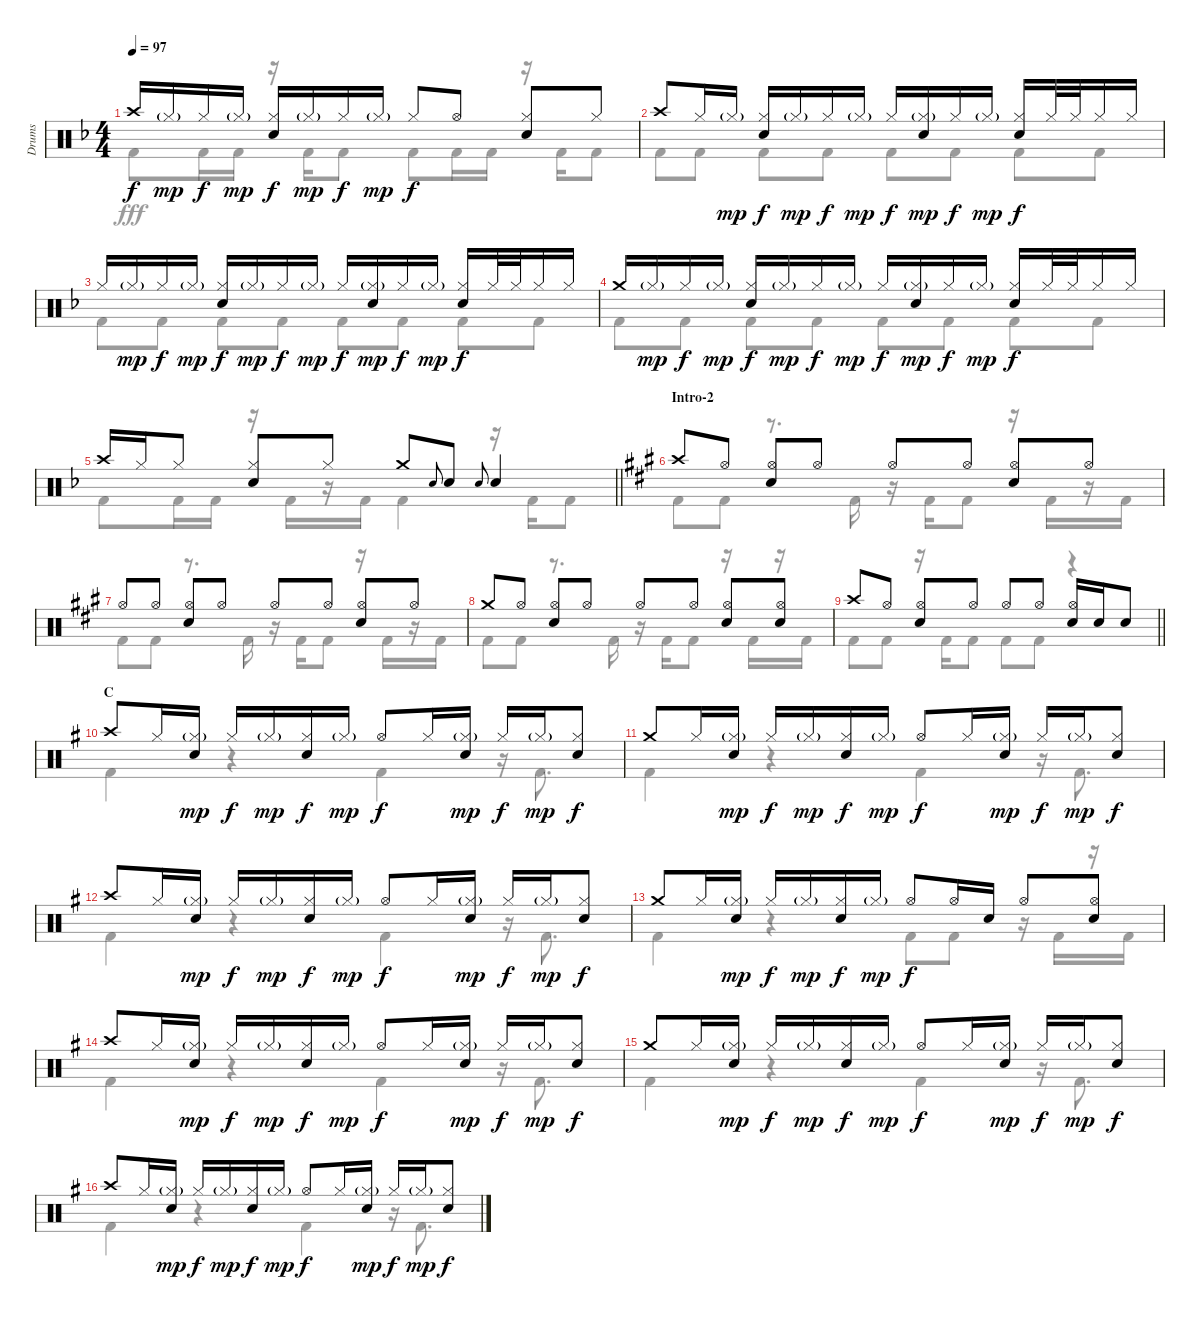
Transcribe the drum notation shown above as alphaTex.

\track ("Drums" "Drums") {instrument percussion}
\staff {score}
\articulation defaults
\voice
\ts (4 4)
\tempo 97
\clef neutral
\ks f "Crash high (hit)".16{dy f} "Hi-Hat (closed)"{g}.16{dy mp} "Hi-Hat (closed)".16{dy f} "Hi-Hat (closed)"{g}.16{dy mp}
("Hi-Hat (closed)" "Snare (hit) 2").16{dy f} "Hi-Hat (closed)"{g}.16{dy mp} "Hi-Hat (closed)".16{dy f} "Hi-Hat (closed)"{g}.16{dy mp} "Hi-Hat (closed)".8{dy f} "Hi-Hat (open)".8 ("Hi-Hat (closed)" "Snare (hit) 2").8 "Hi-Hat (closed)".8 |
"Crash high (hit)".8 "Hi-Hat (closed)".16 "Hi-Hat (closed)"{g}.16{dy mp} ("Hi-Hat (closed)" "Snare (hit) 2").16{dy f} "Hi-Hat (closed)"{g}.16{dy mp} "Hi-Hat (closed)".16{dy f} "Hi-Hat (closed)"{g}.16{dy mp} "Hi-Hat (closed)".16{dy f} ("Hi-Hat (closed)"{g} "Snare (hit) 2").16{dy mp} "Hi-Hat (closed)".16{dy f} "Hi-Hat (closed)"{g}.16{dy mp} ("Hi-Hat (closed)" "Snare (hit) 2").16{dy f} "Hi-Hat (closed)".32 "Hi-Hat (closed)".32 "Hi-Hat (closed)".16 "Hi-Hat (closed)".16 |
"Hi-Hat (closed)".16 "Hi-Hat (closed)"{g}.16{dy mp} "Hi-Hat (closed)".16{dy f} "Hi-Hat (closed)"{g}.16{dy mp} ("Hi-Hat (closed)" "Snare (hit) 2").16{dy f} "Hi-Hat (closed)"{g}.16{dy mp} "Hi-Hat (closed)".16{dy f} "Hi-Hat (closed)"{g}.16{dy mp} "Hi-Hat (closed)".16{dy f} ("Hi-Hat (closed)"{g} "Snare (hit) 2").16{dy mp} "Hi-Hat (closed)".16{dy f} "Hi-Hat (closed)"{g}.16{dy mp} ("Hi-Hat (closed)" "Snare (hit) 2").16{dy f} "Hi-Hat (closed)".32 "Hi-Hat (closed)".32 "Hi-Hat (closed)".16 "Hi-Hat (closed)".16 |
"Crash medium (hit)".16 "Hi-Hat (closed)"{g}.16{dy mp} "Hi-Hat (closed)".16{dy f} "Hi-Hat (closed)"{g}.16{dy mp} ("Hi-Hat (closed)" "Snare (hit) 2").16{dy f} "Hi-Hat (closed)"{g}.16{dy mp} "Hi-Hat (closed)".16{dy f} "Hi-Hat (closed)"{g}.16{dy mp} "Hi-Hat (closed)".16{dy f} ("Hi-Hat (closed)"{g} "Snare (hit) 2").16{dy mp} "Hi-Hat (closed)".16{dy f} "Hi-Hat (closed)"{g}.16{dy mp} ("Hi-Hat (closed)" "Snare (hit) 2").16{dy f} "Hi-Hat (closed)".32 "Hi-Hat (closed)".32 "Hi-Hat (closed)".16 "Hi-Hat (closed)".16 |
\barLineRight lightlight "Crash high (hit)".16 "Hi-Hat (closed)".16 "Hi-Hat (closed)".8
("Hi-Hat (closed)" "Snare (hit) 2").8 "Hi-Hat (closed)".8 "Crash medium (hit)".8 "Snare (hit) 2".8{gr onbeat} "Snare (hit) 2".8 "Snare (hit) 2".8{gr onbeat} "Snare (hit) 2".4 |
\section ("" "Intro-2")
\ks a "Crash high (hit)".8 "Hi-Hat (open)".8
("Hi-Hat (open)" "Snare (hit) 2").8 "Hi-Hat (open)".8 "Hi-Hat (open)".8 "Hi-Hat (open)".8 ("Hi-Hat (open)" "Snare (hit) 2").8 "Hi-Hat (open)".8 |
"Hi-Hat (open)".8 "Hi-Hat (open)".8 ("Hi-Hat (open)" "Snare (hit) 2").8 "Hi-Hat (open)".8 "Hi-Hat (open)".8 "Hi-Hat (open)".8 ("Hi-Hat (open)" "Snare (hit) 2").8 "Hi-Hat (open)".8 |
"Crash medium (hit)".8 "Hi-Hat (open)".8 ("Hi-Hat (open)" "Snare (hit) 2").8 "Hi-Hat (open)".8 "Hi-Hat (open)".8 "Hi-Hat (open)".8 ("Hi-Hat (open)" "Snare (hit) 2").8 ("Hi-Hat (open)" "Snare (hit) 2").8 |
\barLineRight lightlight "Crash high (hit)".8 "Hi-Hat (open)".8
("Hi-Hat (open)" "Snare (hit) 2").8 "Hi-Hat (open)".8 "Hi-Hat (open)".8 "Hi-Hat (open)".8 ("Hi-Hat (open)" "Snare (hit) 2").16 "Snare (hit) 2".16 "Snare (hit) 2".8 |
\section ("" "C")
\ks eminor "Crash high (hit)".8 "Hi-Hat (closed)".16
("Hi-Hat (closed)"{g} "Snare (hit) 2").16{dy mp} "Hi-Hat (closed)".16{dy f} "Hi-Hat (closed)"{g}.16{dy mp} ("Hi-Hat (closed)" "Snare (hit) 2").16{dy f} "Hi-Hat (closed)"{g}.16{dy mp} "Hi-Hat (open)".8{dy f} "Hi-Hat (closed)".16 ("Hi-Hat (closed)"{g} "Snare (hit) 2").16{dy mp} "Hi-Hat (closed)".16{dy f} "Hi-Hat (closed)"{g}.16{dy mp} ("Hi-Hat (closed)" "Snare (hit) 2").8{dy f} |
"Crash medium (hit)".8 "Hi-Hat (closed)".16 ("Hi-Hat (closed)"{g} "Snare (hit) 2").16{dy mp} "Hi-Hat (closed)".16{dy f} "Hi-Hat (closed)"{g}.16{dy mp} ("Hi-Hat (closed)" "Snare (hit) 2").16{dy f} "Hi-Hat (closed)"{g}.16{dy mp} "Hi-Hat (open)".8{dy f} "Hi-Hat (closed)".16 ("Hi-Hat (closed)"{g} "Snare (hit) 2").16{dy mp} "Hi-Hat (closed)".16{dy f} "Hi-Hat (closed)"{g}.16{dy mp} ("Hi-Hat (closed)" "Snare (hit) 2").8{dy f} |
"Crash high (hit)".8 "Hi-Hat (closed)".16 ("Hi-Hat (closed)"{g} "Snare (hit) 2").16{dy mp} "Hi-Hat (closed)".16{dy f} "Hi-Hat (closed)"{g}.16{dy mp} ("Hi-Hat (closed)" "Snare (hit) 2").16{dy f} "Hi-Hat (closed)"{g}.16{dy mp} "Hi-Hat (open)".8{dy f} "Hi-Hat (closed)".16 ("Hi-Hat (closed)"{g} "Snare (hit) 2").16{dy mp} "Hi-Hat (closed)".16{dy f} "Hi-Hat (closed)"{g}.16{dy mp} ("Hi-Hat (closed)" "Snare (hit) 2").8{dy f} |
"Crash medium (hit)".8 "Hi-Hat (closed)".16 ("Hi-Hat (closed)"{g} "Snare (hit) 2").16{dy mp} "Hi-Hat (closed)".16{dy f} "Hi-Hat (closed)"{g}.16{dy mp} ("Hi-Hat (closed)" "Snare (hit) 2").16{dy f} "Hi-Hat (closed)"{g}.16{dy mp} "Hi-Hat (open)".8{dy f} "Hi-Hat (open)".16 "Snare (hit) 2".16 "Hi-Hat (open)".8 ("Hi-Hat (open)" "Snare (hit) 2").8 |
"Crash high (hit)".8 "Hi-Hat (closed)".16 ("Hi-Hat (closed)"{g} "Snare (hit) 2").16{dy mp} "Hi-Hat (closed)".16{dy f} "Hi-Hat (closed)"{g}.16{dy mp} ("Hi-Hat (closed)" "Snare (hit) 2").16{dy f} "Hi-Hat (closed)"{g}.16{dy mp} "Hi-Hat (open)".8{dy f} "Hi-Hat (closed)".16 ("Hi-Hat (closed)"{g} "Snare (hit) 2").16{dy mp} "Hi-Hat (closed)".16{dy f} "Hi-Hat (closed)"{g}.16{dy mp} ("Hi-Hat (closed)" "Snare (hit) 2").8{dy f} |
"Crash medium (hit)".8 "Hi-Hat (closed)".16 ("Hi-Hat (closed)"{g} "Snare (hit) 2").16{dy mp} "Hi-Hat (closed)".16{dy f} "Hi-Hat (closed)"{g}.16{dy mp} ("Hi-Hat (closed)" "Snare (hit) 2").16{dy f} "Hi-Hat (closed)"{g}.16{dy mp} "Hi-Hat (open)".8{dy f} "Hi-Hat (closed)".16 ("Hi-Hat (closed)"{g} "Snare (hit) 2").16{dy mp} "Hi-Hat (closed)".16{dy f} "Hi-Hat (closed)"{g}.16{dy mp} ("Hi-Hat (closed)" "Snare (hit) 2").8{dy f} |
"Crash high (hit)".8 "Hi-Hat (closed)".16 ("Hi-Hat (closed)"{g} "Snare (hit) 2").16{dy mp} "Hi-Hat (closed)".16{dy f} "Hi-Hat (closed)"{g}.16{dy mp} ("Hi-Hat (closed)" "Snare (hit) 2").16{dy f} "Hi-Hat (closed)"{g}.16{dy mp} "Hi-Hat (open)".8{dy f} "Hi-Hat (closed)".16 ("Hi-Hat (closed)"{g} "Snare (hit) 2").16{dy mp} "Hi-Hat (closed)".16{dy f} "Hi-Hat (closed)"{g}.16{dy mp} ("Hi-Hat (closed)" "Snare (hit) 2").8{dy f}
\voice
\clef neutral
\ottava regular
\simile none
\ks f "Kick (hit) 2".8{dy fff} "Kick (hit) 2".16 "Kick (hit) 2".16
r.16 "Kick (hit) 2".16 "Kick (hit) 2".8 "Kick (hit) 2".8 "Kick (hit) 2".16 "Kick (hit) 2".16 r.16 "Kick (hit) 2".16 "Kick (hit) 2".8 |
"Kick (hit) 2".8 "Kick (hit) 2".8 "Kick (hit) 2".8 "Kick (hit) 2".8 "Kick (hit) 2".8 "Kick (hit) 2".8 "Kick (hit) 2".8 "Kick (hit) 2".8 |
"Kick (hit) 2".8 "Kick (hit) 2".8 "Kick (hit) 2".8 "Kick (hit) 2".8 "Kick (hit) 2".8 "Kick (hit) 2".8 "Kick (hit) 2".8 "Kick (hit) 2".8 |
"Kick (hit) 2".8 "Kick (hit) 2".8 "Kick (hit) 2".8 "Kick (hit) 2".8 "Kick (hit) 2".8 "Kick (hit) 2".8 "Kick (hit) 2".8 "Kick (hit) 2".8 |
\barLineRight lightlight "Kick (hit) 2".8 "Kick (hit) 2".16 "Kick (hit) 2".16
r.16 "Kick (hit) 2".16 r.16 "Kick (hit) 2".16 "Kick (hit) 2".4 r.16 "Kick (hit) 2".16 "Kick (hit) 2".8 |
\ks a "Kick (hit) 2".8 "Kick (hit) 2".8
r.8{d} "Kick (hit) 2".16 r.16 "Kick (hit) 2".16 "Kick (hit) 2".8 r.16 "Kick (hit) 2".16 r.16 "Kick (hit) 2".16 |
"Kick (hit) 2".8 "Kick (hit) 2".8 r.8{d} "Kick (hit) 2".16 r.16 "Kick (hit) 2".16 "Kick (hit) 2".8 r.16 "Kick (hit) 2".16 r.16 "Kick (hit) 2".16 |
"Kick (hit) 2".8 "Kick (hit) 2".8 r.8{d} "Kick (hit) 2".16 r.16 "Kick (hit) 2".16 "Kick (hit) 2".8 r.16 "Kick (hit) 2".16 r.16 "Kick (hit) 2".16 |
\barLineRight lightlight "Kick (hit) 2".8 "Kick (hit) 2".8
r.16 "Kick (hit) 2".16 "Kick (hit) 2".8 "Kick (hit) 2".8 "Kick (hit) 2".8 r.4 |
\ks eminor "Kick (hit) 2".4
r.4 "Kick (hit) 2".4 r.16 "Kick (hit) 2".8{d} |
"Kick (hit) 2".4 r.4 "Kick (hit) 2".4 r.16 "Kick (hit) 2".8{d} |
"Kick (hit) 2".4 r.4 "Kick (hit) 2".4 r.16 "Kick (hit) 2".8{d} |
"Kick (hit) 2".4 r.4 "Kick (hit) 2".8 "Kick (hit) 2".8 r.16 "Kick (hit) 2".16 r.16 "Kick (hit) 2".16 |
"Kick (hit) 2".4 r.4 "Kick (hit) 2".4 r.16 "Kick (hit) 2".8{d} |
"Kick (hit) 2".4 r.4 "Kick (hit) 2".4 r.16 "Kick (hit) 2".8{d} |
"Kick (hit) 2".4 r.4 "Kick (hit) 2".4 r.16 "Kick (hit) 2".8{d}
